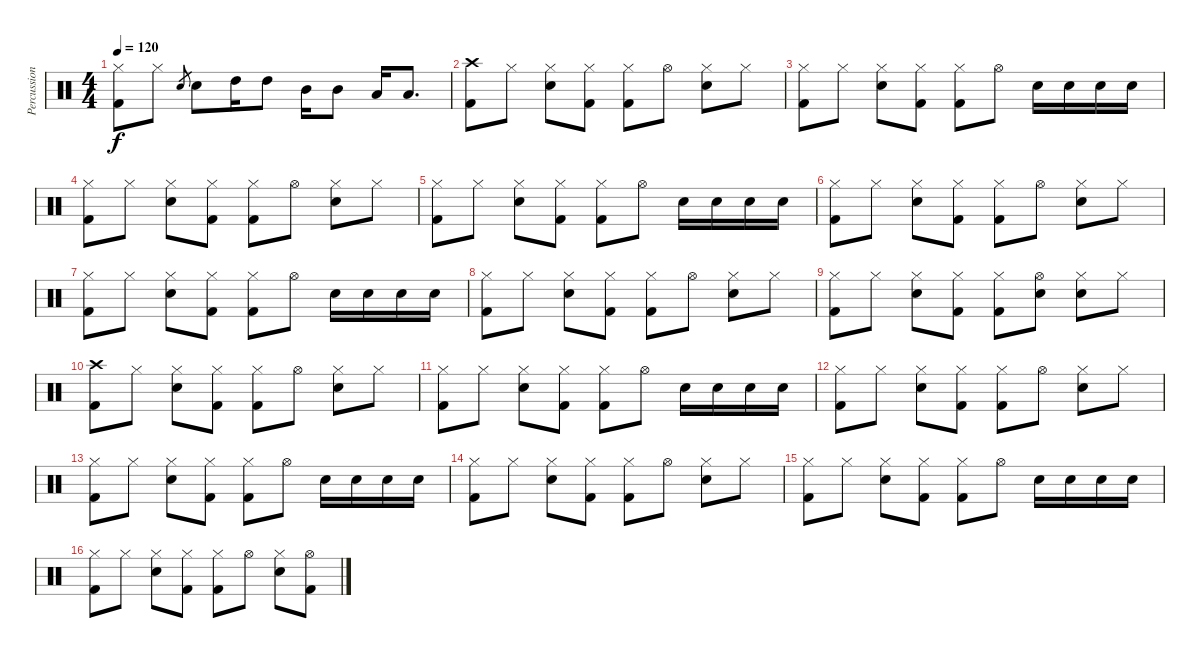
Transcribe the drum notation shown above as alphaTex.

\track ("Percussion" "Percussion") {instrument percussion}
\staff {score}
\articulation defaults
\ts (4 4)
\tempo 120
\clef neutral
\ks c
("Hi-Hat (closed)" "Kick (hit) 2").8{dy f} "Hi-Hat (closed)".8 "Electric Snare (hit)".8{gr} "Electric Snare (hit)".8 "High Tom (hit)".16 "High Tom (hit)".8 "Mid Tom (hit)".16 "Mid Tom (hit)".8 "Low Tom (hit)".16 "Low Tom (hit)".8{d} |
("Crash high (hit)" "Kick (hit) 2").8 "Hi-Hat (closed)".8 ("Hi-Hat (closed)" "Electric Snare (hit)").8 ("Hi-Hat (closed)" "Kick (hit) 2").8 ("Hi-Hat (closed)" "Kick (hit) 2").8 "Hi-Hat (open)".8 ("Hi-Hat (closed)" "Electric Snare (hit)").8 "Hi-Hat (closed)".8 |
("Hi-Hat (closed)" "Kick (hit) 2").8 "Hi-Hat (closed)".8 ("Hi-Hat (closed)" "Electric Snare (hit)").8 ("Hi-Hat (closed)" "Kick (hit) 2").8 ("Hi-Hat (closed)" "Kick (hit) 2").8 "Hi-Hat (open)".8 "Electric Snare (hit)".16 "Electric Snare (hit)".16 "Electric Snare (hit)".16 "Electric Snare (hit)".16 |
("Hi-Hat (closed)" "Kick (hit) 2").8 "Hi-Hat (closed)".8 ("Hi-Hat (closed)" "Electric Snare (hit)").8 ("Hi-Hat (closed)" "Kick (hit) 2").8 ("Hi-Hat (closed)" "Kick (hit) 2").8 "Hi-Hat (open)".8 ("Hi-Hat (closed)" "Electric Snare (hit)").8 "Hi-Hat (closed)".8 |
("Hi-Hat (closed)" "Kick (hit) 2").8 "Hi-Hat (closed)".8 ("Hi-Hat (closed)" "Electric Snare (hit)").8 ("Hi-Hat (closed)" "Kick (hit) 2").8 ("Hi-Hat (closed)" "Kick (hit) 2").8 "Hi-Hat (open)".8 "Electric Snare (hit)".16 "Electric Snare (hit)".16 "Electric Snare (hit)".16 "Electric Snare (hit)".16 |
("Hi-Hat (closed)" "Kick (hit) 2").8 "Hi-Hat (closed)".8 ("Hi-Hat (closed)" "Electric Snare (hit)").8 ("Hi-Hat (closed)" "Kick (hit) 2").8 ("Hi-Hat (closed)" "Kick (hit) 2").8 "Hi-Hat (open)".8 ("Hi-Hat (closed)" "Electric Snare (hit)").8 "Hi-Hat (closed)".8 |
("Hi-Hat (closed)" "Kick (hit) 2").8 "Hi-Hat (closed)".8 ("Hi-Hat (closed)" "Electric Snare (hit)").8 ("Hi-Hat (closed)" "Kick (hit) 2").8 ("Hi-Hat (closed)" "Kick (hit) 2").8 "Hi-Hat (open)".8 "Electric Snare (hit)".16 "Electric Snare (hit)".16 "Electric Snare (hit)".16 "Electric Snare (hit)".16 |
("Hi-Hat (closed)" "Kick (hit) 2").8 "Hi-Hat (closed)".8 ("Hi-Hat (closed)" "Electric Snare (hit)").8 ("Hi-Hat (closed)" "Kick (hit) 2").8 ("Hi-Hat (closed)" "Kick (hit) 2").8 "Hi-Hat (open)".8 ("Hi-Hat (closed)" "Electric Snare (hit)").8 "Hi-Hat (closed)".8 |
("Hi-Hat (closed)" "Kick (hit) 2").8 "Hi-Hat (closed)".8 ("Hi-Hat (closed)" "Electric Snare (hit)").8 ("Hi-Hat (closed)" "Kick (hit) 2").8 ("Hi-Hat (closed)" "Kick (hit) 2").8 ("Hi-Hat (open)" "Electric Snare (hit)").8 ("Hi-Hat (closed)" "Electric Snare (hit)").8 "Hi-Hat (closed)".8 |
("Crash high (hit)" "Kick (hit) 2").8 "Hi-Hat (closed)".8 ("Hi-Hat (closed)" "Electric Snare (hit)").8 ("Hi-Hat (closed)" "Kick (hit) 2").8 ("Hi-Hat (closed)" "Kick (hit) 2").8 "Hi-Hat (open)".8 ("Hi-Hat (closed)" "Electric Snare (hit)").8 "Hi-Hat (closed)".8 |
("Hi-Hat (closed)" "Kick (hit) 2").8 "Hi-Hat (closed)".8 ("Hi-Hat (closed)" "Electric Snare (hit)").8 ("Hi-Hat (closed)" "Kick (hit) 2").8 ("Hi-Hat (closed)" "Kick (hit) 2").8 "Hi-Hat (open)".8 "Electric Snare (hit)".16 "Electric Snare (hit)".16 "Electric Snare (hit)".16 "Electric Snare (hit)".16 |
("Hi-Hat (closed)" "Kick (hit) 2").8 "Hi-Hat (closed)".8 ("Hi-Hat (closed)" "Electric Snare (hit)").8 ("Hi-Hat (closed)" "Kick (hit) 2").8 ("Hi-Hat (closed)" "Kick (hit) 2").8 "Hi-Hat (open)".8 ("Hi-Hat (closed)" "Electric Snare (hit)").8 "Hi-Hat (closed)".8 |
("Hi-Hat (closed)" "Kick (hit) 2").8 "Hi-Hat (closed)".8 ("Hi-Hat (closed)" "Electric Snare (hit)").8 ("Hi-Hat (closed)" "Kick (hit) 2").8 ("Hi-Hat (closed)" "Kick (hit) 2").8 "Hi-Hat (open)".8 "Electric Snare (hit)".16 "Electric Snare (hit)".16 "Electric Snare (hit)".16 "Electric Snare (hit)".16 |
("Hi-Hat (closed)" "Kick (hit) 2").8 "Hi-Hat (closed)".8 ("Hi-Hat (closed)" "Electric Snare (hit)").8 ("Hi-Hat (closed)" "Kick (hit) 2").8 ("Hi-Hat (closed)" "Kick (hit) 2").8 "Hi-Hat (open)".8 ("Hi-Hat (closed)" "Electric Snare (hit)").8 "Hi-Hat (closed)".8 |
("Hi-Hat (closed)" "Kick (hit) 2").8 "Hi-Hat (closed)".8 ("Hi-Hat (closed)" "Electric Snare (hit)").8 ("Hi-Hat (closed)" "Kick (hit) 2").8 ("Hi-Hat (closed)" "Kick (hit) 2").8 "Hi-Hat (open)".8 "Electric Snare (hit)".16 "Electric Snare (hit)".16 "Electric Snare (hit)".16 "Electric Snare (hit)".16 |
("Hi-Hat (closed)" "Kick (hit) 2").8 "Hi-Hat (closed)".8 ("Hi-Hat (closed)" "Electric Snare (hit)").8 ("Hi-Hat (closed)" "Kick (hit) 2").8 ("Hi-Hat (closed)" "Kick (hit) 2").8 "Hi-Hat (open)".8 ("Hi-Hat (closed)" "Electric Snare (hit)").8 ("Hi-Hat (open)" "Kick (hit) 2").8
